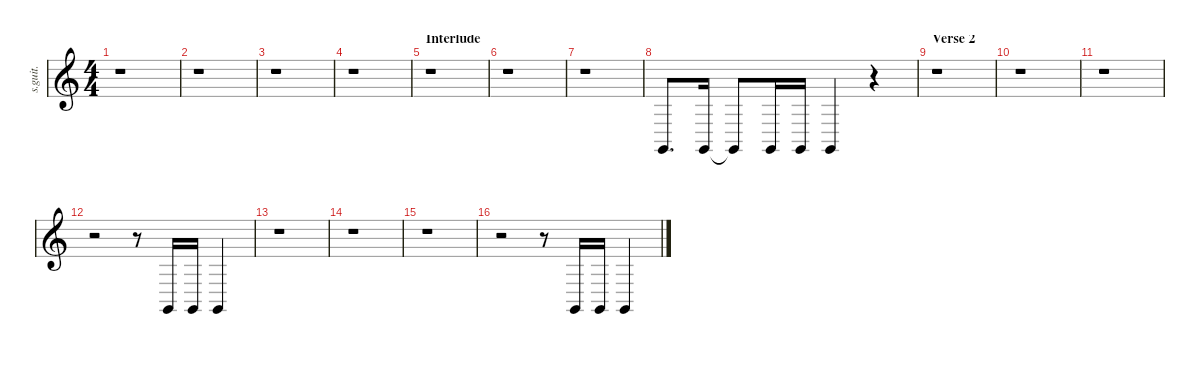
\defaultSystemsLayout 4
\hideDynamics
\bracketExtendMode nobrackets
\track ("Mariachi Band | Percussion" "s.guit.") {instrument percussion}
\staff {score}
\articulation defaults
\ts (4 4)
\tempo (173 hide)
\clef g2
\ks c
r.1{dy f} |
r.1 |
r.1 |
r.1 |
\section ("" "Interlude")
r.1 |
r.1 |
r.1 |
"Claves (hit)".8{d lyrics (0 "") lyrics (1 "") lyrics (2 "") lyrics (3 "") lyrics (4 "")} "Claves (hit)".16{lyrics (0 "") lyrics (1 "") lyrics (2 "") lyrics (3 "") lyrics (4 "")} "Claves (hit)"{t}.8{lyrics (0 "") lyrics (1 "") lyrics (2 "") lyrics (3 "") lyrics (4 "")} "Claves (hit)".16{lyrics (0 "") lyrics (1 "") lyrics (2 "") lyrics (3 "") lyrics (4 "")} "Claves (hit)".16{lyrics (0 "") lyrics (1 "") lyrics (2 "") lyrics (3 "") lyrics (4 "")} "Claves (hit)".4{lyrics (0 "") lyrics (1 "") lyrics (2 "") lyrics (3 "") lyrics (4 "")} r.4 |
\section ("" "Verse 2")
r.1 |
r.1 |
r.1 |
r.2 r.8 "Claves (hit)".16{lyrics (0 "") lyrics (1 "") lyrics (2 "") lyrics (3 "") lyrics (4 "")} "Claves (hit)".16{lyrics (0 "") lyrics (1 "") lyrics (2 "") lyrics (3 "") lyrics (4 "")} "Claves (hit)".4{lyrics (0 "") lyrics (1 "") lyrics (2 "") lyrics (3 "") lyrics (4 "")} |
r.1 |
r.1 |
r.1 |
r.2 r.8 "Claves (hit)".16{lyrics (0 "") lyrics (1 "") lyrics (2 "") lyrics (3 "") lyrics (4 "")} "Claves (hit)".16{lyrics (0 "") lyrics (1 "") lyrics (2 "") lyrics (3 "") lyrics (4 "")} "Claves (hit)".4{lyrics (0 "") lyrics (1 "") lyrics (2 "") lyrics (3 "") lyrics (4 "")}
